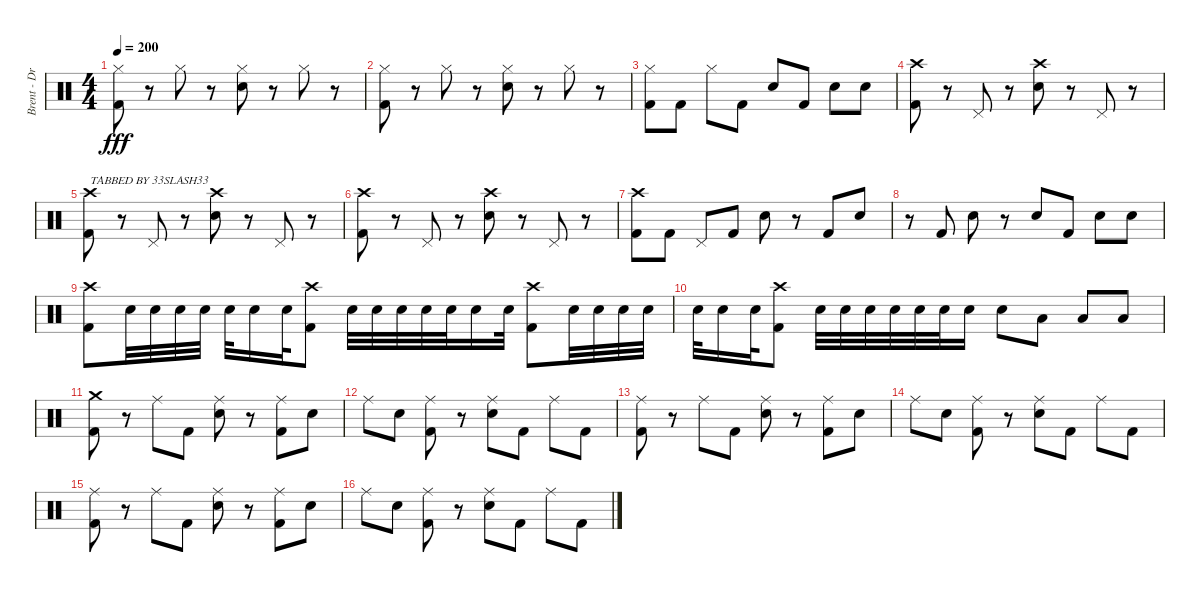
\track ("Brent - Drums" "Brent - Dr") {instrument percussion}
\staff {score}
\articulation defaults
\ts (4 4)
\tempo 200
\clef neutral
\ks c
("Hi-Hat (closed)" "Kick (hit) 2").8{dy fff} r.8 "Hi-Hat (closed)".8 r.8 ("Hi-Hat (closed)" "Snare (hit) 2").8 r.8 "Hi-Hat (closed)".8 r.8 |
("Hi-Hat (closed)" "Kick (hit) 2").8 r.8 "Hi-Hat (closed)".8 r.8 ("Hi-Hat (closed)" "Snare (hit) 2").8 r.8 "Hi-Hat (closed)".8 r.8 |
("Hi-Hat (closed)" "Kick (hit) 2").8 "Kick (hit) 2".8 "Hi-Hat (closed)".8 "Kick (hit) 2".8 "Snare (hit) 2".8 "Kick (hit) 2".8 "Snare (hit) 2".8 "Snare (hit) 2".8 |
("Crash high (hit)" "Kick (hit) 2").8 r.8 "Pedal Hi-Hat (hit)".8 r.8 ("Crash high (hit)" "Snare (hit) 2").8 r.8 "Pedal Hi-Hat (hit)".8 r.8 |
("Crash high (hit)" "Kick (hit) 2").8{txt "TABBED BY 33SLASH33"} r.8 "Pedal Hi-Hat (hit)".8 r.8 ("Crash high (hit)" "Snare (hit) 2").8 r.8 "Pedal Hi-Hat (hit)".8 r.8 |
("Crash high (hit)" "Kick (hit) 2").8 r.8 "Pedal Hi-Hat (hit)".8 r.8 ("Crash high (hit)" "Snare (hit) 2").8 r.8 "Pedal Hi-Hat (hit)".8 r.8 |
("Crash high (hit)" "Kick (hit) 2").8 "Kick (hit) 2".8 "Pedal Hi-Hat (hit)".8 "Kick (hit) 2".8 "Snare (hit) 2".8 r.8 "Kick (hit) 2".8 "Snare (hit) 2".8 |
r.8 "Kick (hit) 2".8 "Snare (hit) 2".8 r.8 "Snare (hit) 2".8 "Kick (hit) 2".8 "Snare (hit) 2".8 "Snare (hit) 2".8 |
("Crash high (hit)" "Kick (hit) 2").8 "Snare (hit) 2".32 "Snare (hit) 2".32 "Snare (hit) 2".32 "Snare (hit) 2".32 "Snare (hit) 2".32 "Snare (hit) 2".16 "Snare (hit) 2".32 ("Crash high (hit)" "Kick (hit) 2").8 "Snare (hit) 2".32 "Snare (hit) 2".32 "Snare (hit) 2".32 "Snare (hit) 2".32 "Snare (hit) 2".32 "Snare (hit) 2".16 "Snare (hit) 2".32 ("Crash high (hit)" "Kick (hit) 2").8 "Snare (hit) 2".32 "Snare (hit) 2".32 "Snare (hit) 2".32 "Snare (hit) 2".32 |
"Snare (hit) 2".32 "Snare (hit) 2".16 "Snare (hit) 2".32 ("Crash high (hit)" "Kick (hit) 2").8 "Snare (hit) 2".32 "Snare (hit) 2".32 "Snare (hit) 2".32 "Snare (hit) 2".32 "Snare (hit) 2".32 "Snare (hit) 2".32 "Snare (hit) 2".16 "Snare (hit) 2".8 "Low Tom (hit)".8 "Low Floor Tom (hit)".8 "Low Floor Tom (hit)".8 |
("Crash medium (hit)" "Kick (hit) 2").8 r.8 "Ride (middle)".8 "Kick (hit) 2".8 ("Ride (middle)" "Snare (hit) 2").8 r.8 ("Ride (middle)" "Kick (hit) 2").8 "Snare (hit) 2".8 |
"Ride (middle)".8 "Snare (hit) 2".8 ("Ride (middle)" "Kick (hit) 2").8 r.8 ("Ride (middle)" "Snare (hit) 2").8 "Kick (hit) 2".8 "Ride (middle)".8 "Kick (hit) 2".8 |
("Ride (middle)" "Kick (hit) 2").8 r.8 "Ride (middle)".8 "Kick (hit) 2".8 ("Ride (middle)" "Snare (hit) 2").8 r.8 ("Ride (middle)" "Kick (hit) 2").8 "Snare (hit) 2".8 |
"Ride (middle)".8 "Snare (hit) 2".8 ("Ride (middle)" "Kick (hit) 2").8 r.8 ("Ride (middle)" "Snare (hit) 2").8 "Kick (hit) 2".8 "Ride (middle)".8 "Kick (hit) 2".8 |
("Ride (middle)" "Kick (hit) 2").8 r.8 "Ride (middle)".8 "Kick (hit) 2".8 ("Ride (middle)" "Snare (hit) 2").8 r.8 ("Ride (middle)" "Kick (hit) 2").8 "Snare (hit) 2".8 |
"Ride (middle)".8 "Snare (hit) 2".8 ("Ride (middle)" "Kick (hit) 2").8 r.8 ("Ride (middle)" "Snare (hit) 2").8 "Kick (hit) 2".8 "Ride (middle)".8 "Kick (hit) 2".8
